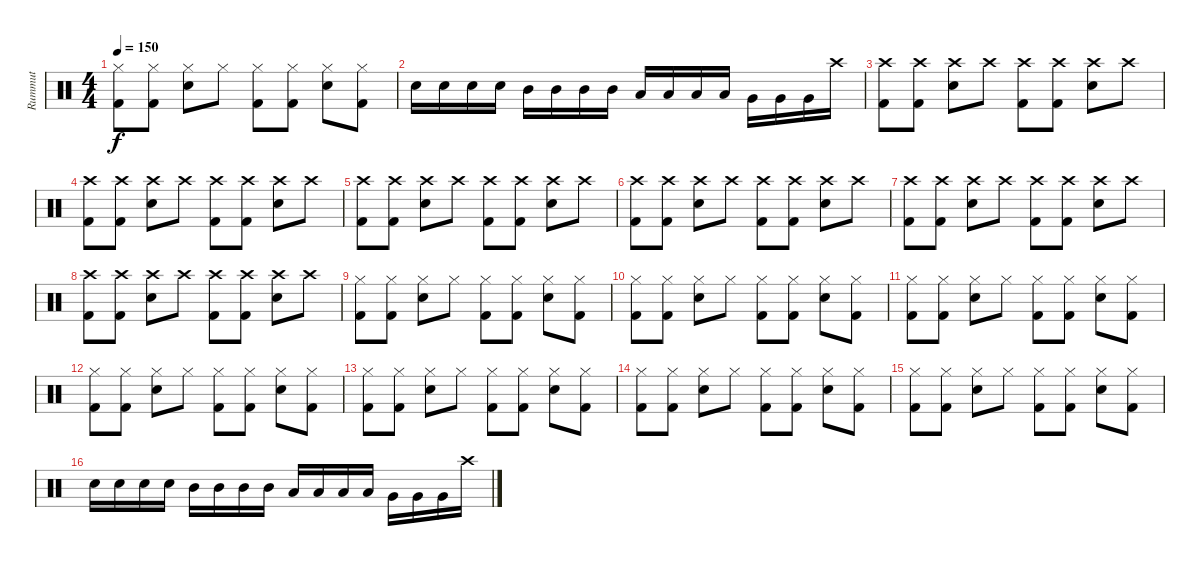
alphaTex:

\track ("Rummut" "Rummut") {instrument percussion}
\staff {score}
\articulation defaults
\ts (4 4)
\tempo 150
\clef neutral
\ks c
("Hi-Hat (closed)" "Kick (hit) 2").8{dy f} ("Hi-Hat (closed)" "Kick (hit) 2").8 ("Electric Snare (hit)" "Hi-Hat (closed)").8 "Hi-Hat (closed)".8 ("Hi-Hat (closed)" "Kick (hit) 2").8 ("Hi-Hat (closed)" "Kick (hit) 2").8 ("Electric Snare (hit)" "Hi-Hat (closed)").8 ("Hi-Hat (closed)" "Kick (hit) 2").8 |
"Electric Snare (hit)".16 "Electric Snare (hit)".16 "Electric Snare (hit)".16 "Electric Snare (hit)".16 "Mid Tom (hit)".16 "Mid Tom (hit)".16 "Mid Tom (hit)".16 "Mid Tom (hit)".16 "Low Tom (hit)".16 "Low Tom (hit)".16 "Low Tom (hit)".16 "Low Tom (hit)".16 "Very Low Tom (hit)".16 "Very Low Tom (hit)".16 "Very Low Tom (hit)".16 "Crash high (hit)".16 |
("Crash high (hit)" "Kick (hit) 2").8 ("Crash high (hit)" "Kick (hit) 2").8 ("Crash high (hit)" "Electric Snare (hit)").8 "Crash high (hit)".8 ("Crash high (hit)" "Kick (hit) 2").8 ("Crash high (hit)" "Kick (hit) 2").8 ("Crash high (hit)" "Electric Snare (hit)").8 "Crash high (hit)".8 |
("Crash high (hit)" "Kick (hit) 2").8 ("Crash high (hit)" "Kick (hit) 2").8 ("Crash high (hit)" "Electric Snare (hit)").8 "Crash high (hit)".8 ("Crash high (hit)" "Kick (hit) 2").8 ("Crash high (hit)" "Kick (hit) 2").8 ("Crash high (hit)" "Electric Snare (hit)").8 "Crash high (hit)".8 |
("Crash high (hit)" "Kick (hit) 2").8 ("Crash high (hit)" "Kick (hit) 2").8 ("Crash high (hit)" "Electric Snare (hit)").8 "Crash high (hit)".8 ("Crash high (hit)" "Kick (hit) 2").8 ("Crash high (hit)" "Kick (hit) 2").8 ("Crash high (hit)" "Electric Snare (hit)").8 "Crash high (hit)".8 |
("Crash high (hit)" "Kick (hit) 2").8 ("Crash high (hit)" "Kick (hit) 2").8 ("Crash high (hit)" "Electric Snare (hit)").8 "Crash high (hit)".8 ("Crash high (hit)" "Kick (hit) 2").8 ("Crash high (hit)" "Kick (hit) 2").8 ("Crash high (hit)" "Electric Snare (hit)").8 "Crash high (hit)".8 |
("Crash high (hit)" "Kick (hit) 2").8 ("Crash high (hit)" "Kick (hit) 2").8 ("Crash high (hit)" "Electric Snare (hit)").8 "Crash high (hit)".8 ("Crash high (hit)" "Kick (hit) 2").8 ("Crash high (hit)" "Kick (hit) 2").8 ("Crash high (hit)" "Electric Snare (hit)").8 "Crash high (hit)".8 |
("Crash high (hit)" "Kick (hit) 2").8 ("Crash high (hit)" "Kick (hit) 2").8 ("Crash high (hit)" "Electric Snare (hit)").8 "Crash high (hit)".8 ("Crash high (hit)" "Kick (hit) 2").8 ("Crash high (hit)" "Kick (hit) 2").8 ("Crash high (hit)" "Electric Snare (hit)").8 "Crash high (hit)".8 |
("Hi-Hat (closed)" "Kick (hit) 2").8 ("Hi-Hat (closed)" "Kick (hit) 2").8 ("Electric Snare (hit)" "Hi-Hat (closed)").8 "Hi-Hat (closed)".8 ("Hi-Hat (closed)" "Kick (hit) 2").8 ("Hi-Hat (closed)" "Kick (hit) 2").8 ("Electric Snare (hit)" "Hi-Hat (closed)").8 ("Hi-Hat (closed)" "Kick (hit) 2").8 |
("Hi-Hat (closed)" "Kick (hit) 2").8 ("Hi-Hat (closed)" "Kick (hit) 2").8 ("Electric Snare (hit)" "Hi-Hat (closed)").8 "Hi-Hat (closed)".8 ("Hi-Hat (closed)" "Kick (hit) 2").8 ("Hi-Hat (closed)" "Kick (hit) 2").8 ("Electric Snare (hit)" "Hi-Hat (closed)").8 ("Hi-Hat (closed)" "Kick (hit) 2").8 |
("Hi-Hat (closed)" "Kick (hit) 2").8 ("Hi-Hat (closed)" "Kick (hit) 2").8 ("Electric Snare (hit)" "Hi-Hat (closed)").8 "Hi-Hat (closed)".8 ("Hi-Hat (closed)" "Kick (hit) 2").8 ("Hi-Hat (closed)" "Kick (hit) 2").8 ("Electric Snare (hit)" "Hi-Hat (closed)").8 ("Hi-Hat (closed)" "Kick (hit) 2").8 |
("Hi-Hat (closed)" "Kick (hit) 2").8 ("Hi-Hat (closed)" "Kick (hit) 2").8 ("Electric Snare (hit)" "Hi-Hat (closed)").8 "Hi-Hat (closed)".8 ("Hi-Hat (closed)" "Kick (hit) 2").8 ("Hi-Hat (closed)" "Kick (hit) 2").8 ("Electric Snare (hit)" "Hi-Hat (closed)").8 ("Hi-Hat (closed)" "Kick (hit) 2").8 |
("Hi-Hat (closed)" "Kick (hit) 2").8 ("Hi-Hat (closed)" "Kick (hit) 2").8 ("Electric Snare (hit)" "Hi-Hat (closed)").8 "Hi-Hat (closed)".8 ("Hi-Hat (closed)" "Kick (hit) 2").8 ("Hi-Hat (closed)" "Kick (hit) 2").8 ("Electric Snare (hit)" "Hi-Hat (closed)").8 ("Hi-Hat (closed)" "Kick (hit) 2").8 |
("Hi-Hat (closed)" "Kick (hit) 2").8 ("Hi-Hat (closed)" "Kick (hit) 2").8 ("Electric Snare (hit)" "Hi-Hat (closed)").8 "Hi-Hat (closed)".8 ("Hi-Hat (closed)" "Kick (hit) 2").8 ("Hi-Hat (closed)" "Kick (hit) 2").8 ("Electric Snare (hit)" "Hi-Hat (closed)").8 ("Hi-Hat (closed)" "Kick (hit) 2").8 |
("Hi-Hat (closed)" "Kick (hit) 2").8 ("Hi-Hat (closed)" "Kick (hit) 2").8 ("Electric Snare (hit)" "Hi-Hat (closed)").8 "Hi-Hat (closed)".8 ("Hi-Hat (closed)" "Kick (hit) 2").8 ("Hi-Hat (closed)" "Kick (hit) 2").8 ("Electric Snare (hit)" "Hi-Hat (closed)").8 ("Hi-Hat (closed)" "Kick (hit) 2").8 |
"Electric Snare (hit)".16 "Electric Snare (hit)".16 "Electric Snare (hit)".16 "Electric Snare (hit)".16 "Mid Tom (hit)".16 "Mid Tom (hit)".16 "Mid Tom (hit)".16 "Mid Tom (hit)".16 "Low Tom (hit)".16 "Low Tom (hit)".16 "Low Tom (hit)".16 "Low Tom (hit)".16 "Very Low Tom (hit)".16 "Very Low Tom (hit)".16 "Very Low Tom (hit)".16 "Crash high (hit)".16
